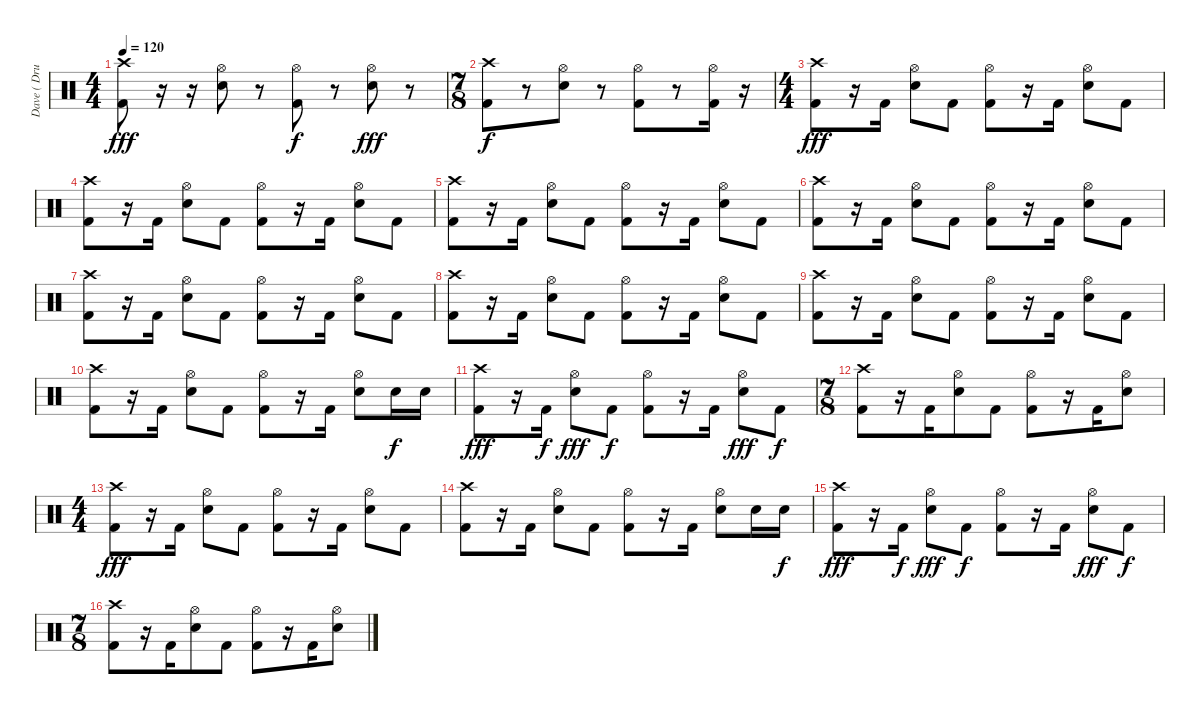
\track ("Dave ( Drumm )" "Dave ( Dru") {instrument percussion}
\staff {score}
\articulation defaults
\ts (4 4)
\tempo 120
\clef neutral
\ks c
("Crash high (hit)" "Kick (hit) 2").8{dy fff} r.16 r.16 ("Hi-Hat (open)" "Snare (hit) 2").8 r.8 ("Hi-Hat (open)" "Kick (hit) 2").8{dy f} r.8 ("Hi-Hat (open)" "Snare (hit) 2").8{dy fff} r.8 |
\ts (7 8)
("Crash high (hit)" "Kick (hit) 2").8{dy f} r.8 ("Hi-Hat (open)" "Snare (hit) 2").8 r.8 ("Hi-Hat (open)" "Kick (hit) 2").8 r.8 ("Hi-Hat (open)" "Kick (hit) 2").16 r.16 |
\ts (4 4)
("Crash high (hit)" "Kick (hit) 2").8{dy fff} r.16 "Kick (hit) 2".16 ("Hi-Hat (open)" "Snare (hit) 2").8 "Kick (hit) 2".8 ("Hi-Hat (open)" "Kick (hit) 2").8 r.16 "Kick (hit) 2".16 ("Hi-Hat (open)" "Snare (hit) 2").8 "Kick (hit) 2".8 |
("Crash high (hit)" "Kick (hit) 2").8 r.16 "Kick (hit) 2".16 ("Hi-Hat (open)" "Snare (hit) 2").8 "Kick (hit) 2".8 ("Hi-Hat (open)" "Kick (hit) 2").8 r.16 "Kick (hit) 2".16 ("Hi-Hat (open)" "Snare (hit) 2").8 "Kick (hit) 2".8 |
("Crash high (hit)" "Kick (hit) 2").8 r.16 "Kick (hit) 2".16 ("Hi-Hat (open)" "Snare (hit) 2").8 "Kick (hit) 2".8 ("Hi-Hat (open)" "Kick (hit) 2").8 r.16 "Kick (hit) 2".16 ("Hi-Hat (open)" "Snare (hit) 2").8 "Kick (hit) 2".8 |
("Crash high (hit)" "Kick (hit) 2").8 r.16 "Kick (hit) 2".16 ("Hi-Hat (open)" "Snare (hit) 2").8 "Kick (hit) 2".8 ("Hi-Hat (open)" "Kick (hit) 2").8 r.16 "Kick (hit) 2".16 ("Hi-Hat (open)" "Snare (hit) 2").8 "Kick (hit) 2".8 |
("Crash high (hit)" "Kick (hit) 2").8 r.16 "Kick (hit) 2".16 ("Hi-Hat (open)" "Snare (hit) 2").8 "Kick (hit) 2".8 ("Hi-Hat (open)" "Kick (hit) 2").8 r.16 "Kick (hit) 2".16 ("Hi-Hat (open)" "Snare (hit) 2").8 "Kick (hit) 2".8 |
("Crash high (hit)" "Kick (hit) 2").8 r.16 "Kick (hit) 2".16 ("Hi-Hat (open)" "Snare (hit) 2").8 "Kick (hit) 2".8 ("Hi-Hat (open)" "Kick (hit) 2").8 r.16 "Kick (hit) 2".16 ("Hi-Hat (open)" "Snare (hit) 2").8 "Kick (hit) 2".8 |
("Crash high (hit)" "Kick (hit) 2").8 r.16 "Kick (hit) 2".16 ("Hi-Hat (open)" "Snare (hit) 2").8 "Kick (hit) 2".8 ("Hi-Hat (open)" "Kick (hit) 2").8 r.16 "Kick (hit) 2".16 ("Hi-Hat (open)" "Snare (hit) 2").8 "Kick (hit) 2".8 |
("Crash high (hit)" "Kick (hit) 2").8 r.16 "Kick (hit) 2".16 ("Hi-Hat (open)" "Snare (hit) 2").8 "Kick (hit) 2".8 ("Hi-Hat (open)" "Kick (hit) 2").8 r.16 "Kick (hit) 2".16 ("Hi-Hat (open)" "Snare (hit) 2").8 "Snare (hit) 2".16{dy f} "Snare (hit) 2".16 |
("Crash high (hit)" "Kick (hit) 2").8{dy fff} r.16 "Kick (hit) 2".16{dy f} ("Hi-Hat (open)" "Snare (hit) 2").8{dy fff} "Kick (hit) 2".8{dy f} ("Hi-Hat (open)" "Kick (hit) 2").8 r.16 "Kick (hit) 2".16 ("Hi-Hat (open)" "Snare (hit) 2").8{dy fff} "Kick (hit) 2".8{dy f} |
\ts (7 8)
("Crash high (hit)" "Kick (hit) 2").8 r.16 "Kick (hit) 2".16 ("Hi-Hat (open)" "Snare (hit) 2").8 "Kick (hit) 2".8 ("Hi-Hat (open)" "Kick (hit) 2").8 r.16 "Kick (hit) 2".16 ("Hi-Hat (open)" "Snare (hit) 2").8 |
\ts (4 4)
("Crash high (hit)" "Kick (hit) 2").8{dy fff} r.16 "Kick (hit) 2".16 ("Hi-Hat (open)" "Snare (hit) 2").8 "Kick (hit) 2".8 ("Hi-Hat (open)" "Kick (hit) 2").8 r.16 "Kick (hit) 2".16 ("Hi-Hat (open)" "Snare (hit) 2").8 "Kick (hit) 2".8 |
("Crash high (hit)" "Kick (hit) 2").8 r.16 "Kick (hit) 2".16 ("Hi-Hat (open)" "Snare (hit) 2").8 "Kick (hit) 2".8 ("Hi-Hat (open)" "Kick (hit) 2").8 r.16 "Kick (hit) 2".16 ("Hi-Hat (open)" "Snare (hit) 2").8 "Snare (hit) 2".16 "Snare (hit) 2".16{dy f} |
("Crash high (hit)" "Kick (hit) 2").8{dy fff} r.16 "Kick (hit) 2".16{dy f} ("Hi-Hat (open)" "Snare (hit) 2").8{dy fff} "Kick (hit) 2".8{dy f} ("Hi-Hat (open)" "Kick (hit) 2").8 r.16 "Kick (hit) 2".16 ("Hi-Hat (open)" "Snare (hit) 2").8{dy fff} "Kick (hit) 2".8{dy f} |
\ts (7 8)
("Crash high (hit)" "Kick (hit) 2").8 r.16 "Kick (hit) 2".16 ("Hi-Hat (open)" "Snare (hit) 2").8 "Kick (hit) 2".8 ("Hi-Hat (open)" "Kick (hit) 2").8 r.16 "Kick (hit) 2".16 ("Hi-Hat (open)" "Snare (hit) 2").8
